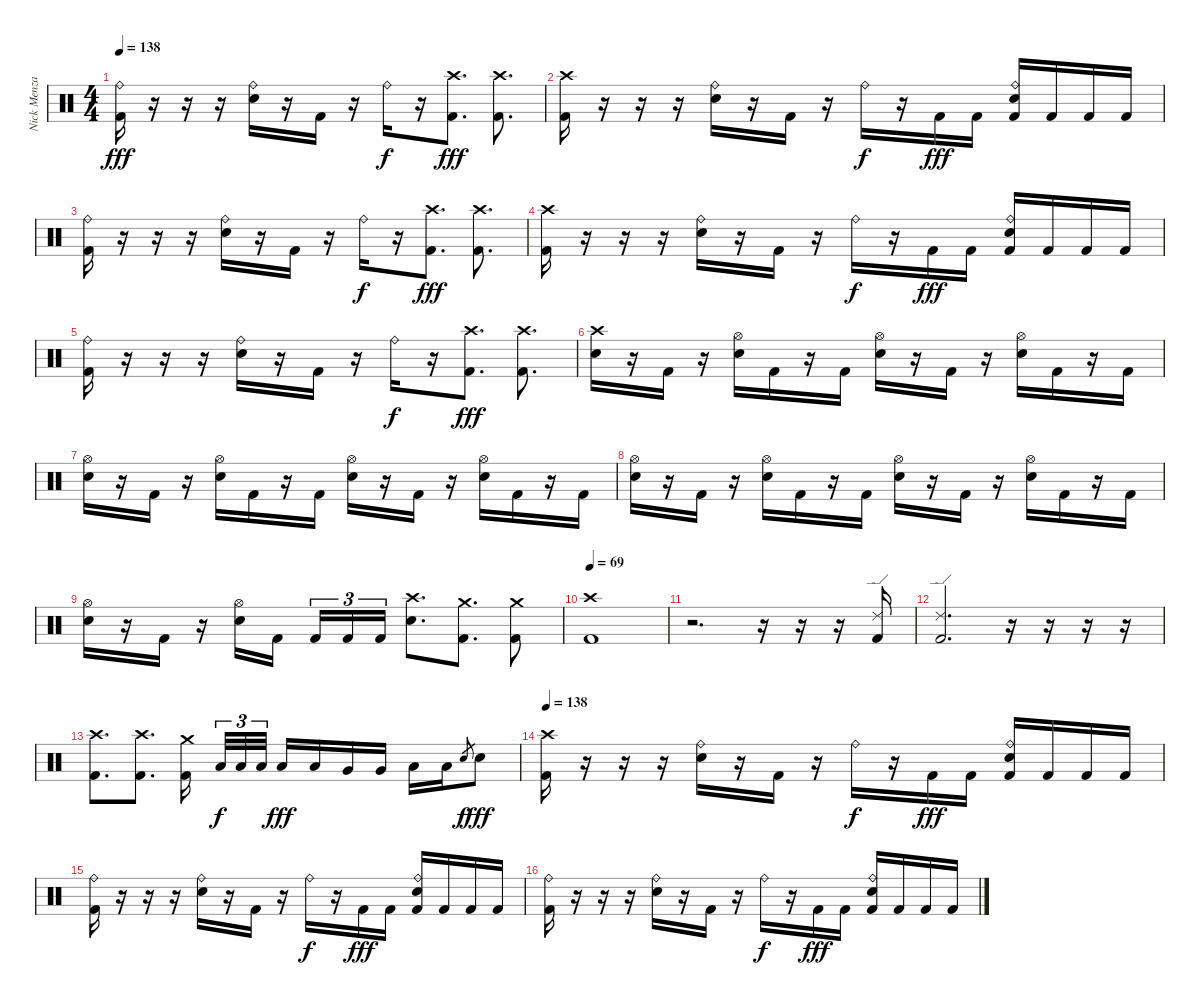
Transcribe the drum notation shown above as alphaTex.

\track ("Nick Menza" "Nick Menza") {instrument percussion}
\staff {score}
\articulation defaults
\ts (4 4)
\tempo 138
\clef neutral
\ks c
("Kick (hit) 2" "Ride (bell)").16{dy fff} r.16 r.16 r.16 ("Electric Snare (hit)" "Ride (bell)").16 r.16 "Kick (hit) 2".16 r.16 "Ride (bell)".16{dy f} r.16 ("Kick (hit) 2" "Crash high (hit)").8{d dy fff} ("Kick (hit) 2" "Crash high (hit)").8{d} |
("Kick (hit) 2" "Crash high (hit)").16 r.16 r.16 r.16 ("Electric Snare (hit)" "Ride (bell)").16 r.16 "Kick (hit) 2".16 r.16 "Ride (bell)".16{dy f} r.16 "Kick (hit) 2".16{dy fff} "Kick (hit) 2".16 ("Kick (hit) 2" "Electric Snare (hit)" "Ride (bell)").16 "Kick (hit) 2".16 "Kick (hit) 2".16 "Kick (hit) 2".16 |
("Kick (hit) 2" "Ride (bell)").16 r.16 r.16 r.16 ("Electric Snare (hit)" "Ride (bell)").16 r.16 "Kick (hit) 2".16 r.16 "Ride (bell)".16{dy f} r.16 ("Kick (hit) 2" "Crash high (hit)").8{d dy fff} ("Kick (hit) 2" "Crash high (hit)").8{d} |
("Kick (hit) 2" "Crash high (hit)").16 r.16 r.16 r.16 ("Electric Snare (hit)" "Ride (bell)").16 r.16 "Kick (hit) 2".16 r.16 "Ride (bell)".16{dy f} r.16 "Kick (hit) 2".16{dy fff} "Kick (hit) 2".16 ("Kick (hit) 2" "Electric Snare (hit)" "Ride (bell)").16 "Kick (hit) 2".16 "Kick (hit) 2".16 "Kick (hit) 2".16 |
("Kick (hit) 2" "Ride (bell)").16 r.16 r.16 r.16 ("Electric Snare (hit)" "Ride (bell)").16 r.16 "Kick (hit) 2".16 r.16 "Ride (bell)".16{dy f} r.16 ("Kick (hit) 2" "Crash high (hit)").8{d dy fff} ("Kick (hit) 2" "Crash high (hit)").8{d} |
("Electric Snare (hit)" "Crash high (hit)").16 r.16 "Kick (hit) 2".16 r.16 ("Electric Snare (hit)" "Hi-Hat (open)").16 "Kick (hit) 2".16 r.16 "Kick (hit) 2".16 ("Electric Snare (hit)" "Hi-Hat (open)").16 r.16 "Kick (hit) 2".16 r.16 ("Electric Snare (hit)" "Hi-Hat (open)").16 "Kick (hit) 2".16 r.16 "Kick (hit) 2".16 |
("Electric Snare (hit)" "Hi-Hat (open)").16 r.16 "Kick (hit) 2".16 r.16 ("Electric Snare (hit)" "Hi-Hat (open)").16 "Kick (hit) 2".16 r.16 "Kick (hit) 2".16 ("Electric Snare (hit)" "Hi-Hat (open)").16 r.16 "Kick (hit) 2".16 r.16 ("Electric Snare (hit)" "Hi-Hat (open)").16 "Kick (hit) 2".16 r.16 "Kick (hit) 2".16 |
("Electric Snare (hit)" "Hi-Hat (open)").16 r.16 "Kick (hit) 2".16 r.16 ("Electric Snare (hit)" "Hi-Hat (open)").16 "Kick (hit) 2".16 r.16 "Kick (hit) 2".16 ("Electric Snare (hit)" "Hi-Hat (open)").16 r.16 "Kick (hit) 2".16 r.16 ("Electric Snare (hit)" "Hi-Hat (open)").16 "Kick (hit) 2".16 r.16 "Kick (hit) 2".16 |
("Electric Snare (hit)" "Hi-Hat (open)").16 r.16 "Kick (hit) 2".16 r.16 ("Electric Snare (hit)" "Hi-Hat (open)").16 "Kick (hit) 2".16 "Kick (hit) 2".16{tu (3 2)} "Kick (hit) 2".16{tu (3 2)} "Kick (hit) 2".16{tu (3 2)} ("Electric Snare (hit)" "Crash high (hit)").8{d} ("Kick (hit) 2" "Crash medium (hit)").8{d} ("Kick (hit) 2" "Crash medium (hit)").8 |
\tempo 69
("Kick (hit) 2" "Crash high (hit)").1 |
r.2{d} r.16 r.16 r.16 ("Kick (hit) 2" "Ride (edge) 2").16 |
("Kick (hit) 2" "Ride (edge) 2").2{d} r.16 r.16 r.16 r.16 |
("Kick (hit) 2" "Crash high (hit)").8{d} ("Kick (hit) 2" "Crash high (hit)").8{d} ("Kick (hit) 2" "Crash medium (hit)").16 "Low Tom (hit)".32{tu (3 2) dy f} "Low Tom (hit)".32{tu (3 2)} "Low Tom (hit)".32{tu (3 2)} "Low Tom (hit)".16{dy fff} "Low Tom (hit)".16 "Very Low Tom (hit)".16 "Very Low Tom (hit)".16 "Low Floor Tom (hit)".16 "Low Floor Tom (hit)".16 "Electric Snare (hit)".8{gr dy f} "Electric Snare (hit)".8{dy fff} |
\tempo 138
("Kick (hit) 2" "Crash high (hit)").16 r.16 r.16 r.16 ("Electric Snare (hit)" "Ride (bell)").16 r.16 "Kick (hit) 2".16 r.16 "Ride (bell)".16{dy f} r.16 "Kick (hit) 2".16{dy fff} "Kick (hit) 2".16 ("Kick (hit) 2" "Electric Snare (hit)" "Ride (bell)").16 "Kick (hit) 2".16 "Kick (hit) 2".16 "Kick (hit) 2".16 |
("Kick (hit) 2" "Ride (bell)").16 r.16 r.16 r.16 ("Electric Snare (hit)" "Ride (bell)").16 r.16 "Kick (hit) 2".16 r.16 "Ride (bell)".16{dy f} r.16 "Kick (hit) 2".16{dy fff} "Kick (hit) 2".16 ("Kick (hit) 2" "Electric Snare (hit)" "Ride (bell)").16 "Kick (hit) 2".16 "Kick (hit) 2".16 "Kick (hit) 2".16 |
("Kick (hit) 2" "Ride (bell)").16 r.16 r.16 r.16 ("Electric Snare (hit)" "Ride (bell)").16 r.16 "Kick (hit) 2".16 r.16 "Ride (bell)".16{dy f} r.16 "Kick (hit) 2".16{dy fff} "Kick (hit) 2".16 ("Kick (hit) 2" "Electric Snare (hit)" "Ride (bell)").16 "Kick (hit) 2".16 "Kick (hit) 2".16 "Kick (hit) 2".16
